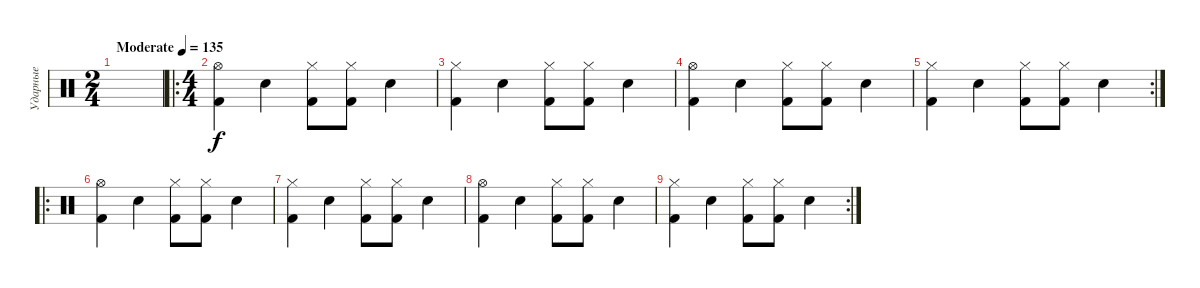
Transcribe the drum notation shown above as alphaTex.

\track ("Ударные" "Ударные") {instrument percussion}
\staff {score}
\articulation defaults
\ts (2 4)
\tempo (135 "Moderate")
\clef neutral
\ks c
|
\ro
\ts (4 4)
("Kick (hit) 2" "Hi-Hat (open)").4 "Electric Snare (hit)".4 ("Kick (hit) 2" "Hi-Hat (closed)").8 ("Kick (hit) 2" "Hi-Hat (closed)").8 "Electric Snare (hit)".4 |
("Kick (hit) 2" "Hi-Hat (closed)").4 "Electric Snare (hit)".4 ("Kick (hit) 2" "Hi-Hat (closed)").8 ("Kick (hit) 2" "Hi-Hat (closed)").8 "Electric Snare (hit)".4 |
("Kick (hit) 2" "Hi-Hat (open)").4 "Electric Snare (hit)".4 ("Kick (hit) 2" "Hi-Hat (closed)").8 ("Kick (hit) 2" "Hi-Hat (closed)").8 "Electric Snare (hit)".4 |
\rc 2
("Kick (hit) 2" "Hi-Hat (closed)").4 "Electric Snare (hit)".4 ("Kick (hit) 2" "Hi-Hat (closed)").8 ("Kick (hit) 2" "Hi-Hat (closed)").8 "Electric Snare (hit)".4 |
\ro
("Kick (hit) 2" "Hi-Hat (open)").4 "Electric Snare (hit)".4 ("Kick (hit) 2" "Hi-Hat (closed)").8 ("Kick (hit) 2" "Hi-Hat (closed)").8 "Electric Snare (hit)".4 |
("Kick (hit) 2" "Hi-Hat (closed)").4 "Electric Snare (hit)".4 ("Kick (hit) 2" "Hi-Hat (closed)").8 ("Kick (hit) 2" "Hi-Hat (closed)").8 "Electric Snare (hit)".4 |
("Kick (hit) 2" "Hi-Hat (open)").4 "Electric Snare (hit)".4 ("Kick (hit) 2" "Hi-Hat (closed)").8 ("Kick (hit) 2" "Hi-Hat (closed)").8 "Electric Snare (hit)".4 |
\rc 2
("Kick (hit) 2" "Hi-Hat (closed)").4 "Electric Snare (hit)".4 ("Kick (hit) 2" "Hi-Hat (closed)").8 ("Kick (hit) 2" "Hi-Hat (closed)").8 "Electric Snare (hit)".4
